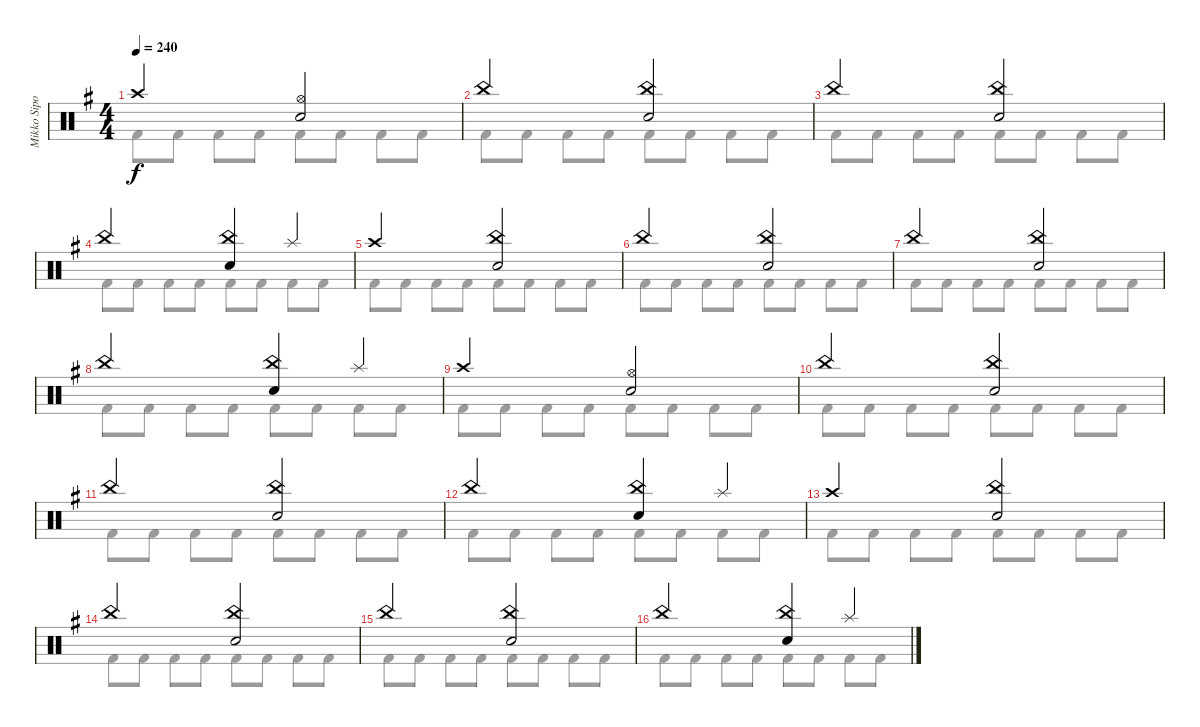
\track ("Mikko Sipola (drums)" "Mikko Sipo") {instrument percussion}
\staff {score}
\articulation defaults
\voice
\ts (4 4)
\tempo 240
\clef neutral
\ks eminor "Crash high (hit)".2{dy f}
("Electric Snare (hit)" "Hi-Hat (open)").2 |
"China (hit)".2 ("Electric Snare (hit)" "China (hit)").2 |
"China (hit)".2 ("Electric Snare (hit)" "China (hit)").2 |
"China (hit)".2 ("Electric Snare (hit)" "China (hit)").4 "Splash (hit)".4 |
"Crash high (hit)".2 ("Electric Snare (hit)" "China (hit)").2 |
"China (hit)".2 ("Electric Snare (hit)" "China (hit)").2 |
"China (hit)".2 ("Electric Snare (hit)" "China (hit)").2 |
"China (hit)".2 ("Electric Snare (hit)" "China (hit)").4 "Splash (hit)".4 |
"Crash high (hit)".2 ("Electric Snare (hit)" "Hi-Hat (open)").2 |
"China (hit)".2 ("Electric Snare (hit)" "China (hit)").2 |
"China (hit)".2 ("Electric Snare (hit)" "China (hit)").2 |
"China (hit)".2 ("Electric Snare (hit)" "China (hit)").4 "Splash (hit)".4 |
"Crash high (hit)".2 ("Electric Snare (hit)" "China (hit)").2 |
"China (hit)".2 ("Electric Snare (hit)" "China (hit)").2 |
"China (hit)".2 ("Electric Snare (hit)" "China (hit)").2 |
"China (hit)".2 ("Electric Snare (hit)" "China (hit)").4 "Splash (hit)".4
\voice
\clef neutral
\ottava regular
\simile none
\ks eminor "Kick (hit) 2".8{dy f} "Kick (hit) 2".8 "Kick (hit) 2".8 "Kick (hit) 2".8 "Kick (hit) 2".8 "Kick (hit) 2".8 "Kick (hit) 2".8 "Kick (hit) 2".8
|
"Kick (hit) 2".8 "Kick (hit) 2".8 "Kick (hit) 2".8 "Kick (hit) 2".8 "Kick (hit) 2".8 "Kick (hit) 2".8 "Kick (hit) 2".8 "Kick (hit) 2".8 |
"Kick (hit) 2".8 "Kick (hit) 2".8 "Kick (hit) 2".8 "Kick (hit) 2".8 "Kick (hit) 2".8 "Kick (hit) 2".8 "Kick (hit) 2".8 "Kick (hit) 2".8 |
"Kick (hit) 2".8 "Kick (hit) 2".8 "Kick (hit) 2".8 "Kick (hit) 2".8 "Kick (hit) 2".8 "Kick (hit) 2".8 "Kick (hit) 2".8 "Kick (hit) 2".8 |
"Kick (hit) 2".8 "Kick (hit) 2".8 "Kick (hit) 2".8 "Kick (hit) 2".8 "Kick (hit) 2".8 "Kick (hit) 2".8 "Kick (hit) 2".8 "Kick (hit) 2".8 |
"Kick (hit) 2".8 "Kick (hit) 2".8 "Kick (hit) 2".8 "Kick (hit) 2".8 "Kick (hit) 2".8 "Kick (hit) 2".8 "Kick (hit) 2".8 "Kick (hit) 2".8 |
"Kick (hit) 2".8 "Kick (hit) 2".8 "Kick (hit) 2".8 "Kick (hit) 2".8 "Kick (hit) 2".8 "Kick (hit) 2".8 "Kick (hit) 2".8 "Kick (hit) 2".8 |
"Kick (hit) 2".8 "Kick (hit) 2".8 "Kick (hit) 2".8 "Kick (hit) 2".8 "Kick (hit) 2".8 "Kick (hit) 2".8 "Kick (hit) 2".8 "Kick (hit) 2".8 |
"Kick (hit) 2".8 "Kick (hit) 2".8 "Kick (hit) 2".8 "Kick (hit) 2".8 "Kick (hit) 2".8 "Kick (hit) 2".8 "Kick (hit) 2".8 "Kick (hit) 2".8 |
"Kick (hit) 2".8 "Kick (hit) 2".8 "Kick (hit) 2".8 "Kick (hit) 2".8 "Kick (hit) 2".8 "Kick (hit) 2".8 "Kick (hit) 2".8 "Kick (hit) 2".8 |
"Kick (hit) 2".8 "Kick (hit) 2".8 "Kick (hit) 2".8 "Kick (hit) 2".8 "Kick (hit) 2".8 "Kick (hit) 2".8 "Kick (hit) 2".8 "Kick (hit) 2".8 |
"Kick (hit) 2".8 "Kick (hit) 2".8 "Kick (hit) 2".8 "Kick (hit) 2".8 "Kick (hit) 2".8 "Kick (hit) 2".8 "Kick (hit) 2".8 "Kick (hit) 2".8 |
"Kick (hit) 2".8 "Kick (hit) 2".8 "Kick (hit) 2".8 "Kick (hit) 2".8 "Kick (hit) 2".8 "Kick (hit) 2".8 "Kick (hit) 2".8 "Kick (hit) 2".8 |
"Kick (hit) 2".8 "Kick (hit) 2".8 "Kick (hit) 2".8 "Kick (hit) 2".8 "Kick (hit) 2".8 "Kick (hit) 2".8 "Kick (hit) 2".8 "Kick (hit) 2".8 |
"Kick (hit) 2".8 "Kick (hit) 2".8 "Kick (hit) 2".8 "Kick (hit) 2".8 "Kick (hit) 2".8 "Kick (hit) 2".8 "Kick (hit) 2".8 "Kick (hit) 2".8 |
"Kick (hit) 2".8 "Kick (hit) 2".8 "Kick (hit) 2".8 "Kick (hit) 2".8 "Kick (hit) 2".8 "Kick (hit) 2".8 "Kick (hit) 2".8 "Kick (hit) 2".8
